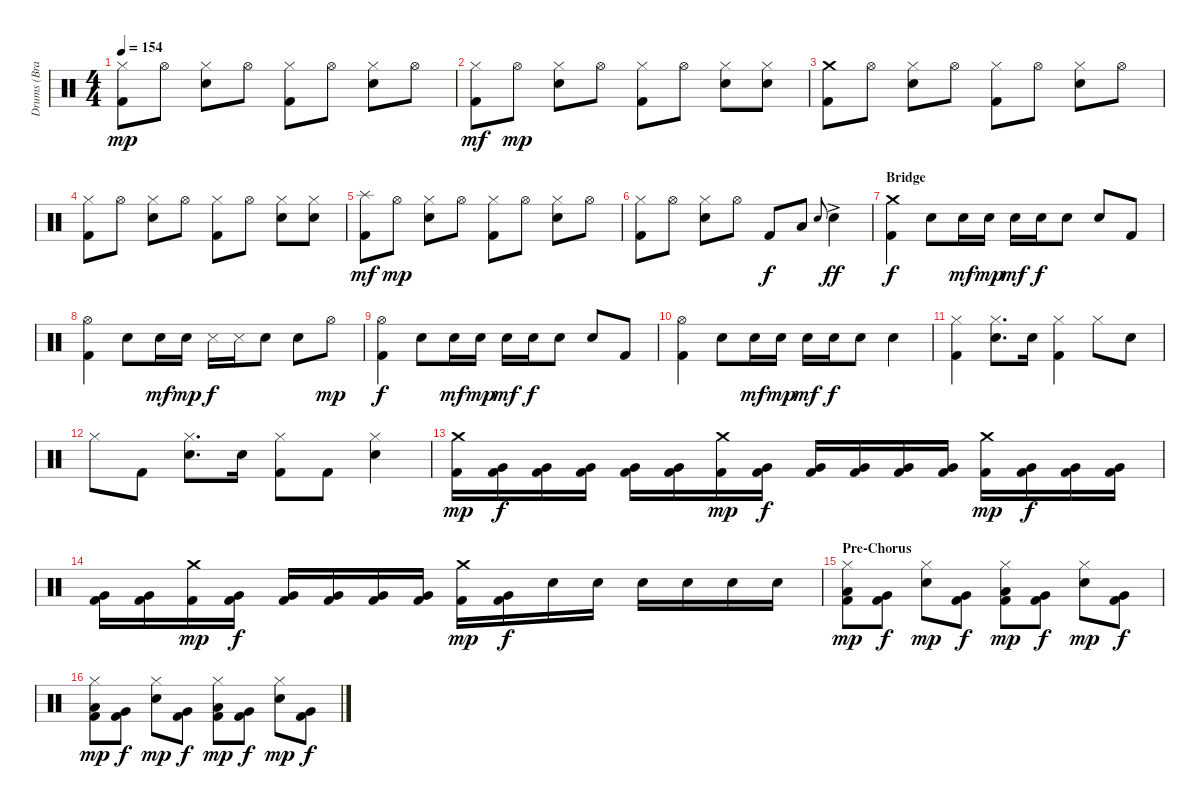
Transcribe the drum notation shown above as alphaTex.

\track ("Drums (Brandon Saller)" "Drums (Bra") {instrument percussion}
\staff {score}
\articulation defaults
\ts (4 4)
\tempo 154
\clef neutral
\ks c
("Hi-Hat (closed)" "Kick (hit) 2").8{dy mp} "Hi-Hat (open)".8 ("Hi-Hat (closed)" "Electric Snare (hit)").8 "Hi-Hat (open)".8 ("Hi-Hat (closed)" "Kick (hit) 2").8 "Hi-Hat (open)".8 ("Hi-Hat (closed)" "Electric Snare (hit)").8 "Hi-Hat (open)".8 |
("Hi-Hat (closed)" "Kick (hit) 2").8{dy mf} "Hi-Hat (open)".8{dy mp} ("Hi-Hat (closed)" "Electric Snare (hit)").8 "Hi-Hat (open)".8 ("Hi-Hat (closed)" "Kick (hit) 2").8 "Hi-Hat (open)".8 ("Hi-Hat (closed)" "Electric Snare (hit)").8 ("Hi-Hat (closed)" "Electric Snare (hit)").8 |
("Crash medium (hit)" "Kick (hit) 2").8 "Hi-Hat (open)".8 ("Hi-Hat (closed)" "Electric Snare (hit)").8 "Hi-Hat (open)".8 ("Hi-Hat (closed)" "Kick (hit) 2").8 "Hi-Hat (open)".8 ("Hi-Hat (closed)" "Electric Snare (hit)").8 "Hi-Hat (open)".8 |
("Hi-Hat (closed)" "Kick (hit) 2").8 "Hi-Hat (open)".8 ("Hi-Hat (closed)" "Electric Snare (hit)").8 "Hi-Hat (open)".8 ("Hi-Hat (closed)" "Kick (hit) 2").8 "Hi-Hat (open)".8 ("Hi-Hat (closed)" "Electric Snare (hit)").8 ("Hi-Hat (closed)" "Electric Snare (hit)").8 |
("Splash (hit)" "Kick (hit) 2").8{dy mf} "Hi-Hat (open)".8{dy mp} ("Hi-Hat (closed)" "Electric Snare (hit)").8 "Hi-Hat (open)".8 ("Hi-Hat (closed)" "Kick (hit) 2").8 "Hi-Hat (open)".8 ("Hi-Hat (closed)" "Electric Snare (hit)").8 "Hi-Hat (open)".8 |
("Hi-Hat (closed)" "Kick (hit) 2").8 "Hi-Hat (open)".8 ("Hi-Hat (closed)" "Electric Snare (hit)").8 "Hi-Hat (open)".8 "Kick (hit) 2".8{dy f} "Low Tom (hit)".8 "Electric Snare (hit)".8{gr onbeat} "Electric Snare (hit)"{ac}.4{dy ff} |
\section ("" "Bridge")
("Crash medium (hit)" "Kick (hit) 2").4{dy f volume 6} "Electric Snare (hit)".8 "Electric Snare (hit)".16{dy mf} "Electric Snare (hit)".16{dy mp} "Electric Snare (hit)".16{dy mf} "Electric Snare (hit)".16{dy f} "Electric Snare (hit)".8 "Electric Snare (hit)".8 "Kick (hit) 2".8 |
("Hi-Hat (open)" "Kick (hit) 2").4 "Electric Snare (hit)".8 "Electric Snare (hit)".16{dy mf} "Electric Snare (hit)".16{dy mp} "Snare (side stick) 3".16{dy f} "Snare (side stick) 3".16 "Electric Snare (hit)".8 "Electric Snare (hit)".8 "Hi-Hat (open)".8{dy mp} |
("Hi-Hat (open)" "Kick (hit) 2").4{dy f} "Electric Snare (hit)".8 "Electric Snare (hit)".16{dy mf} "Electric Snare (hit)".16{dy mp} "Electric Snare (hit)".16{dy mf} "Electric Snare (hit)".16{dy f} "Electric Snare (hit)".8 "Electric Snare (hit)".8 "Kick (hit) 2".8 |
("Hi-Hat (open)" "Kick (hit) 2").4 "Electric Snare (hit)".8 "Electric Snare (hit)".16{dy mf} "Electric Snare (hit)".16{dy mp} "Electric Snare (hit)".16{dy mf} "Electric Snare (hit)".16{dy f} "Electric Snare (hit)".8 "Electric Snare (hit)".4{volume 10} |
("Hi-Hat (closed)" "Kick (hit) 2").4 ("Hi-Hat (closed)" "Electric Snare (hit)").8{d} "Electric Snare (hit)".16 ("Hi-Hat (closed)" "Kick (hit) 2").4 "Hi-Hat (closed)".8 "Electric Snare (hit)".8 |
"Hi-Hat (closed)".8 "Kick (hit) 2".8 ("Hi-Hat (closed)" "Electric Snare (hit)").8{d} "Electric Snare (hit)".16 ("Hi-Hat (closed)" "Kick (hit) 2").8 "Kick (hit) 2".8 ("Hi-Hat (closed)" "Electric Snare (hit)").4 |
("Crash medium (hit)" "Kick (hit) 2").16{dy mp} ("Very Low Tom (hit)" "Kick (hit) 2").16{dy f} ("Very Low Tom (hit)" "Kick (hit) 2").16 ("Very Low Tom (hit)" "Kick (hit) 2").16 ("Very Low Tom (hit)" "Kick (hit) 2").16 ("Very Low Tom (hit)" "Kick (hit) 2").16 ("Crash medium (hit)" "Kick (hit) 2").16{dy mp} ("Very Low Tom (hit)" "Kick (hit) 2").16{dy f} ("Very Low Tom (hit)" "Kick (hit) 2").16 ("Very Low Tom (hit)" "Kick (hit) 2").16 ("Very Low Tom (hit)" "Kick (hit) 2").16 ("Very Low Tom (hit)" "Kick (hit) 2").16 ("Crash medium (hit)" "Kick (hit) 2").16{dy mp} ("Very Low Tom (hit)" "Kick (hit) 2").16{dy f} ("Very Low Tom (hit)" "Kick (hit) 2").16 ("Very Low Tom (hit)" "Kick (hit) 2").16 |
("Very Low Tom (hit)" "Kick (hit) 2").16 ("Very Low Tom (hit)" "Kick (hit) 2").16 ("Crash medium (hit)" "Kick (hit) 2").16{dy mp} ("Very Low Tom (hit)" "Kick (hit) 2").16{dy f} ("Very Low Tom (hit)" "Kick (hit) 2").16 ("Very Low Tom (hit)" "Kick (hit) 2").16 ("Very Low Tom (hit)" "Kick (hit) 2").16 ("Very Low Tom (hit)" "Kick (hit) 2").16 ("Crash medium (hit)" "Kick (hit) 2").16{dy mp} ("Very Low Tom (hit)" "Kick (hit) 2").16{dy f} "Electric Snare (hit)".16 "Electric Snare (hit)".16 "Electric Snare (hit)".16 "Electric Snare (hit)".16 "Electric Snare (hit)".16 "Electric Snare (hit)".16 |
\section ("" "Pre-Chorus")
("Hi-Hat (closed)" "Low Tom (hit)" "Kick (hit) 2").8{dy mp} ("Very Low Tom (hit)" "Kick (hit) 2").8{dy f} ("Hi-Hat (closed)" "Electric Snare (hit)").8{dy mp} ("Very Low Tom (hit)" "Kick (hit) 2").8{dy f} ("Hi-Hat (closed)" "Low Tom (hit)" "Kick (hit) 2").8{dy mp} ("Very Low Tom (hit)" "Kick (hit) 2").8{dy f} ("Hi-Hat (closed)" "Electric Snare (hit)").8{dy mp} ("Very Low Tom (hit)" "Kick (hit) 2").8{dy f} |
("Hi-Hat (closed)" "Low Tom (hit)" "Kick (hit) 2").8{dy mp} ("Very Low Tom (hit)" "Kick (hit) 2").8{dy f} ("Hi-Hat (closed)" "Electric Snare (hit)").8{dy mp} ("Very Low Tom (hit)" "Kick (hit) 2").8{dy f} ("Hi-Hat (closed)" "Low Tom (hit)" "Kick (hit) 2").8{dy mp} ("Very Low Tom (hit)" "Kick (hit) 2").8{dy f} ("Hi-Hat (closed)" "Electric Snare (hit)").8{dy mp} ("Very Low Tom (hit)" "Kick (hit) 2").8{dy f}
